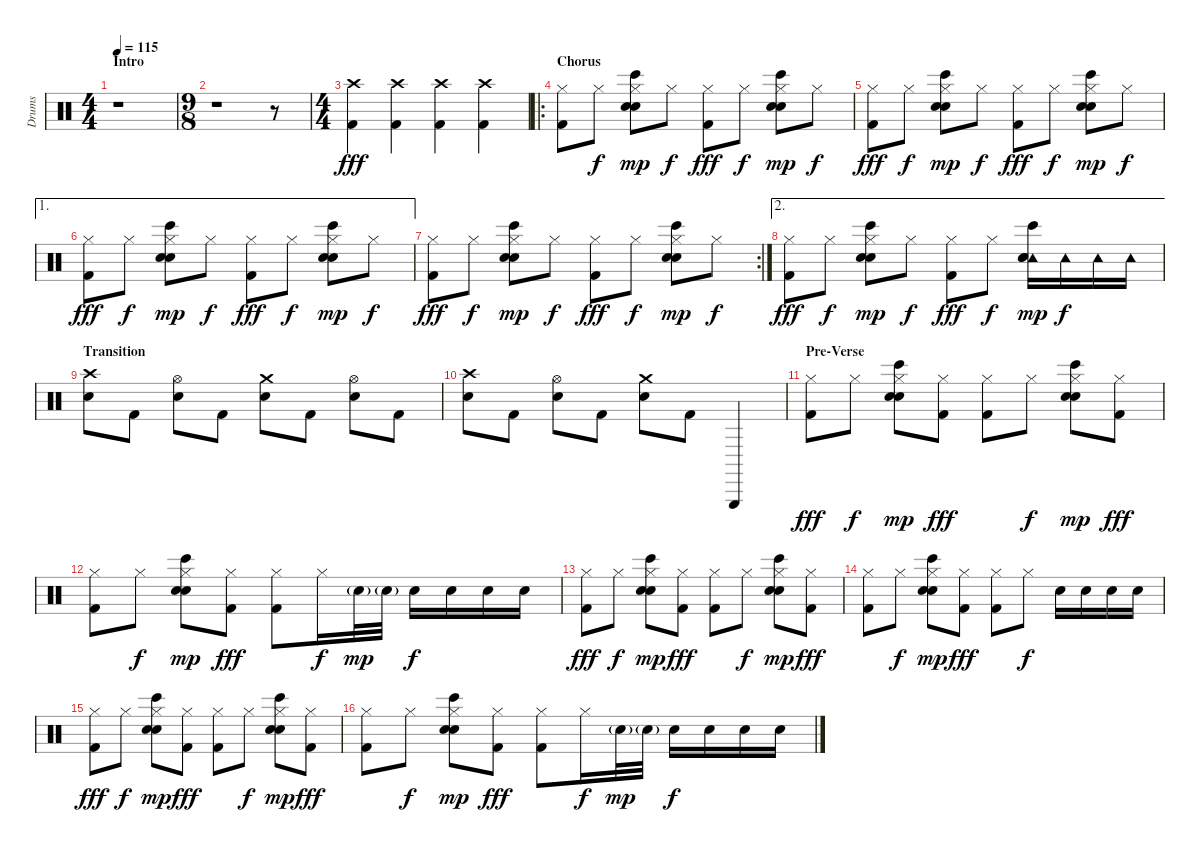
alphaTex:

\track ("Drums" "Drums") {instrument percussion}
\staff {score}
\articulation defaults
\ts (4 4)
\section ("" "Intro")
\tempo 115
\clef neutral
\ks c
r.1{dy fff} |
\ts (9 8)
r.1 r.8 |
\ts (4 4)
("Crash high (hit)" "Kick (hit) 2").4 ("Crash high (hit)" "Kick (hit) 2").4 ("Crash high (hit)" "Kick (hit) 2").4 ("Crash high (hit)" "Kick (hit) 2").4 |
\ro
\section ("" "Chorus")
("Hi-Hat (closed)" "Kick (hit) 2").8 "Hi-Hat (closed)".8{dy f} ("Hi-Hat (closed)" "Bongo High (hit)" "Electric Snare (hit)" "Hand Clap (hit)").8{dy mp} "Hi-Hat (closed)".8{dy f} ("Hi-Hat (closed)" "Kick (hit) 2").8{dy fff} "Hi-Hat (closed)".8{dy f} ("Hi-Hat (closed)" "Bongo High (hit)" "Electric Snare (hit)" "Hand Clap (hit)").8{dy mp} "Hi-Hat (closed)".8{dy f} |
("Hi-Hat (closed)" "Kick (hit) 2").8{dy fff} "Hi-Hat (closed)".8{dy f} ("Hi-Hat (closed)" "Bongo High (hit)" "Electric Snare (hit)" "Hand Clap (hit)").8{dy mp} "Hi-Hat (closed)".8{dy f} ("Hi-Hat (closed)" "Kick (hit) 2").8{dy fff} "Hi-Hat (closed)".8{dy f} ("Hi-Hat (closed)" "Bongo High (hit)" "Electric Snare (hit)" "Hand Clap (hit)").8{dy mp} "Hi-Hat (closed)".8{dy f} |
\ae 1
("Hi-Hat (closed)" "Kick (hit) 2").8{dy fff} "Hi-Hat (closed)".8{dy f} ("Hi-Hat (closed)" "Bongo High (hit)" "Electric Snare (hit)" "Hand Clap (hit)").8{dy mp} "Hi-Hat (closed)".8{dy f} ("Hi-Hat (closed)" "Kick (hit) 2").8{dy fff} "Hi-Hat (closed)".8{dy f} ("Hi-Hat (closed)" "Bongo High (hit)" "Electric Snare (hit)" "Hand Clap (hit)").8{dy mp} "Hi-Hat (closed)".8{dy f} |
\rc 2
("Hi-Hat (closed)" "Kick (hit) 2").8{dy fff} "Hi-Hat (closed)".8{dy f} ("Hi-Hat (closed)" "Bongo High (hit)" "Electric Snare (hit)" "Hand Clap (hit)").8{dy mp} "Hi-Hat (closed)".8{dy f} ("Hi-Hat (closed)" "Kick (hit) 2").8{dy fff} "Hi-Hat (closed)".8{dy f} ("Hi-Hat (closed)" "Bongo High (hit)" "Electric Snare (hit)" "Hand Clap (hit)").8{dy mp} "Hi-Hat (closed)".8{dy f} |
\ae 2
("Hi-Hat (closed)" "Kick (hit) 2").8{dy fff} "Hi-Hat (closed)".8{dy f} ("Hi-Hat (closed)" "Bongo High (hit)" "Electric Snare (hit)" "Hand Clap (hit)").8{dy mp} "Hi-Hat (closed)".8{dy f} ("Hi-Hat (closed)" "Kick (hit) 2").8{dy fff} "Hi-Hat (closed)".8{dy f} ("Tambourine (hit)" "Bongo High (hit)" "Electric Snare (hit)" "Hand Clap (hit)").16{dy mp} "Tambourine (hit)".16{dy f} "Tambourine (hit)".16 "Tambourine (hit)".16 |
\section ("" "Transition")
("Crash high (hit)" "Electric Snare (hit)").8 "Kick (hit) 2".8 ("Hi-Hat (open)" "Electric Snare (hit)").8 "Kick (hit) 2".8 ("Crash medium (hit)" "Electric Snare (hit)").8 "Kick (hit) 2".8 ("Hi-Hat (open)" "Electric Snare (hit)").8 "Kick (hit) 2".8 |
("Crash high (hit)" "Electric Snare (hit)").8 "Kick (hit) 2".8 ("Hi-Hat (open)" "Electric Snare (hit)").8 "Kick (hit) 2".8 ("Crash medium (hit)" "Electric Snare (hit)").8 "Kick (hit) 2".8 "Triangle (hit)".4 |
\section ("" "Pre-Verse")
("Hi-Hat (closed)" "Kick (hit) 2").8{dy fff} "Hi-Hat (closed)".8{dy f} ("Hi-Hat (closed)" "Bongo High (hit)" "Electric Snare (hit)" "Hand Clap (hit)").8{dy mp} ("Hi-Hat (closed)" "Kick (hit) 2").8{dy fff} ("Hi-Hat (closed)" "Kick (hit) 2").8 "Hi-Hat (closed)".8{dy f} ("Hi-Hat (closed)" "Bongo High (hit)" "Electric Snare (hit)" "Hand Clap (hit)").8{dy mp} ("Hi-Hat (closed)" "Kick (hit) 2").8{dy fff} |
("Hi-Hat (closed)" "Kick (hit) 2").8 "Hi-Hat (closed)".8{dy f} ("Hi-Hat (closed)" "Bongo High (hit)" "Electric Snare (hit)" "Hand Clap (hit)").8{dy mp} ("Hi-Hat (closed)" "Kick (hit) 2").8{dy fff} ("Hi-Hat (closed)" "Kick (hit) 2").8 "Hi-Hat (closed)".16{dy f} "Electric Snare (hit)"{g}.32{dy mp} "Electric Snare (hit)"{g}.32 "Electric Snare (hit)".16{dy f} "Electric Snare (hit)".16 "Electric Snare (hit)".16 "Electric Snare (hit)".16 |
("Hi-Hat (closed)" "Kick (hit) 2").8{dy fff} "Hi-Hat (closed)".8{dy f} ("Hi-Hat (closed)" "Bongo High (hit)" "Electric Snare (hit)" "Hand Clap (hit)").8{dy mp} ("Hi-Hat (closed)" "Kick (hit) 2").8{dy fff} ("Hi-Hat (closed)" "Kick (hit) 2").8 "Hi-Hat (closed)".8{dy f} ("Hi-Hat (closed)" "Bongo High (hit)" "Electric Snare (hit)" "Hand Clap (hit)").8{dy mp} ("Hi-Hat (closed)" "Kick (hit) 2").8{dy fff} |
("Hi-Hat (closed)" "Kick (hit) 2").8 "Hi-Hat (closed)".8{dy f} ("Hi-Hat (closed)" "Bongo High (hit)" "Electric Snare (hit)" "Hand Clap (hit)").8{dy mp} ("Hi-Hat (closed)" "Kick (hit) 2").8{dy fff} ("Hi-Hat (closed)" "Kick (hit) 2").8 "Hi-Hat (closed)".8{dy f} "Electric Snare (hit)".16 "Electric Snare (hit)".16 "Electric Snare (hit)".16 "Electric Snare (hit)".16 |
("Hi-Hat (closed)" "Kick (hit) 2").8{dy fff} "Hi-Hat (closed)".8{dy f} ("Hi-Hat (closed)" "Bongo High (hit)" "Electric Snare (hit)" "Hand Clap (hit)").8{dy mp} ("Hi-Hat (closed)" "Kick (hit) 2").8{dy fff} ("Hi-Hat (closed)" "Kick (hit) 2").8 "Hi-Hat (closed)".8{dy f} ("Hi-Hat (closed)" "Bongo High (hit)" "Electric Snare (hit)" "Hand Clap (hit)").8{dy mp} ("Hi-Hat (closed)" "Kick (hit) 2").8{dy fff} |
("Hi-Hat (closed)" "Kick (hit) 2").8 "Hi-Hat (closed)".8{dy f} ("Hi-Hat (closed)" "Bongo High (hit)" "Electric Snare (hit)" "Hand Clap (hit)").8{dy mp} ("Hi-Hat (closed)" "Kick (hit) 2").8{dy fff} ("Hi-Hat (closed)" "Kick (hit) 2").8 "Hi-Hat (closed)".16{dy f} "Electric Snare (hit)"{g}.32{dy mp} "Electric Snare (hit)"{g}.32 "Electric Snare (hit)".16{dy f} "Electric Snare (hit)".16 "Electric Snare (hit)".16 "Electric Snare (hit)".16
